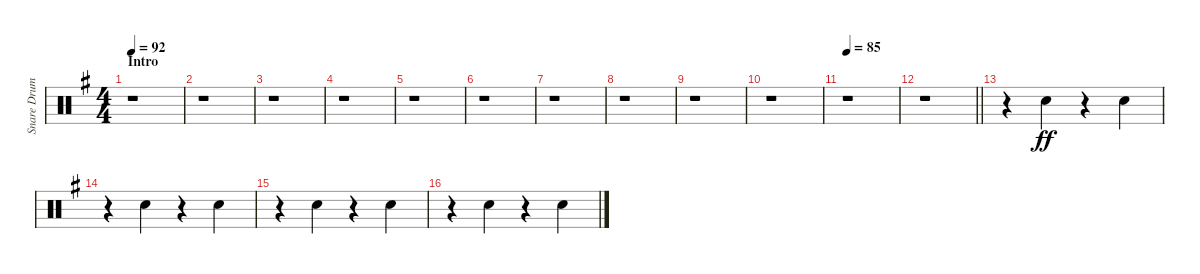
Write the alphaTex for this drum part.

\track ("Snare Drum" "Snare Drum") {instrument percussion}
\staff {score}
\articulation defaults
\ts (4 4)
\section ("" "Intro")
\tempo 92
\clef neutral
\ks g
r.1{dy ff} |
r.1 |
r.1 |
r.1 |
r.1 |
r.1 |
r.1 |
r.1 |
r.1 |
r.1 |
\tempo 85
r.1 |
\barLineRight lightlight
r.1 |
r.4{beam merge} "Electric Snare (hit)".4 r.4{beam merge} "Electric Snare (hit)".4 |
r.4{beam merge} "Electric Snare (hit)".4 r.4{beam merge} "Electric Snare (hit)".4 |
r.4{beam merge} "Electric Snare (hit)".4 r.4{beam merge} "Electric Snare (hit)".4 |
r.4{beam merge} "Electric Snare (hit)".4 r.4{beam merge} "Electric Snare (hit)".4
